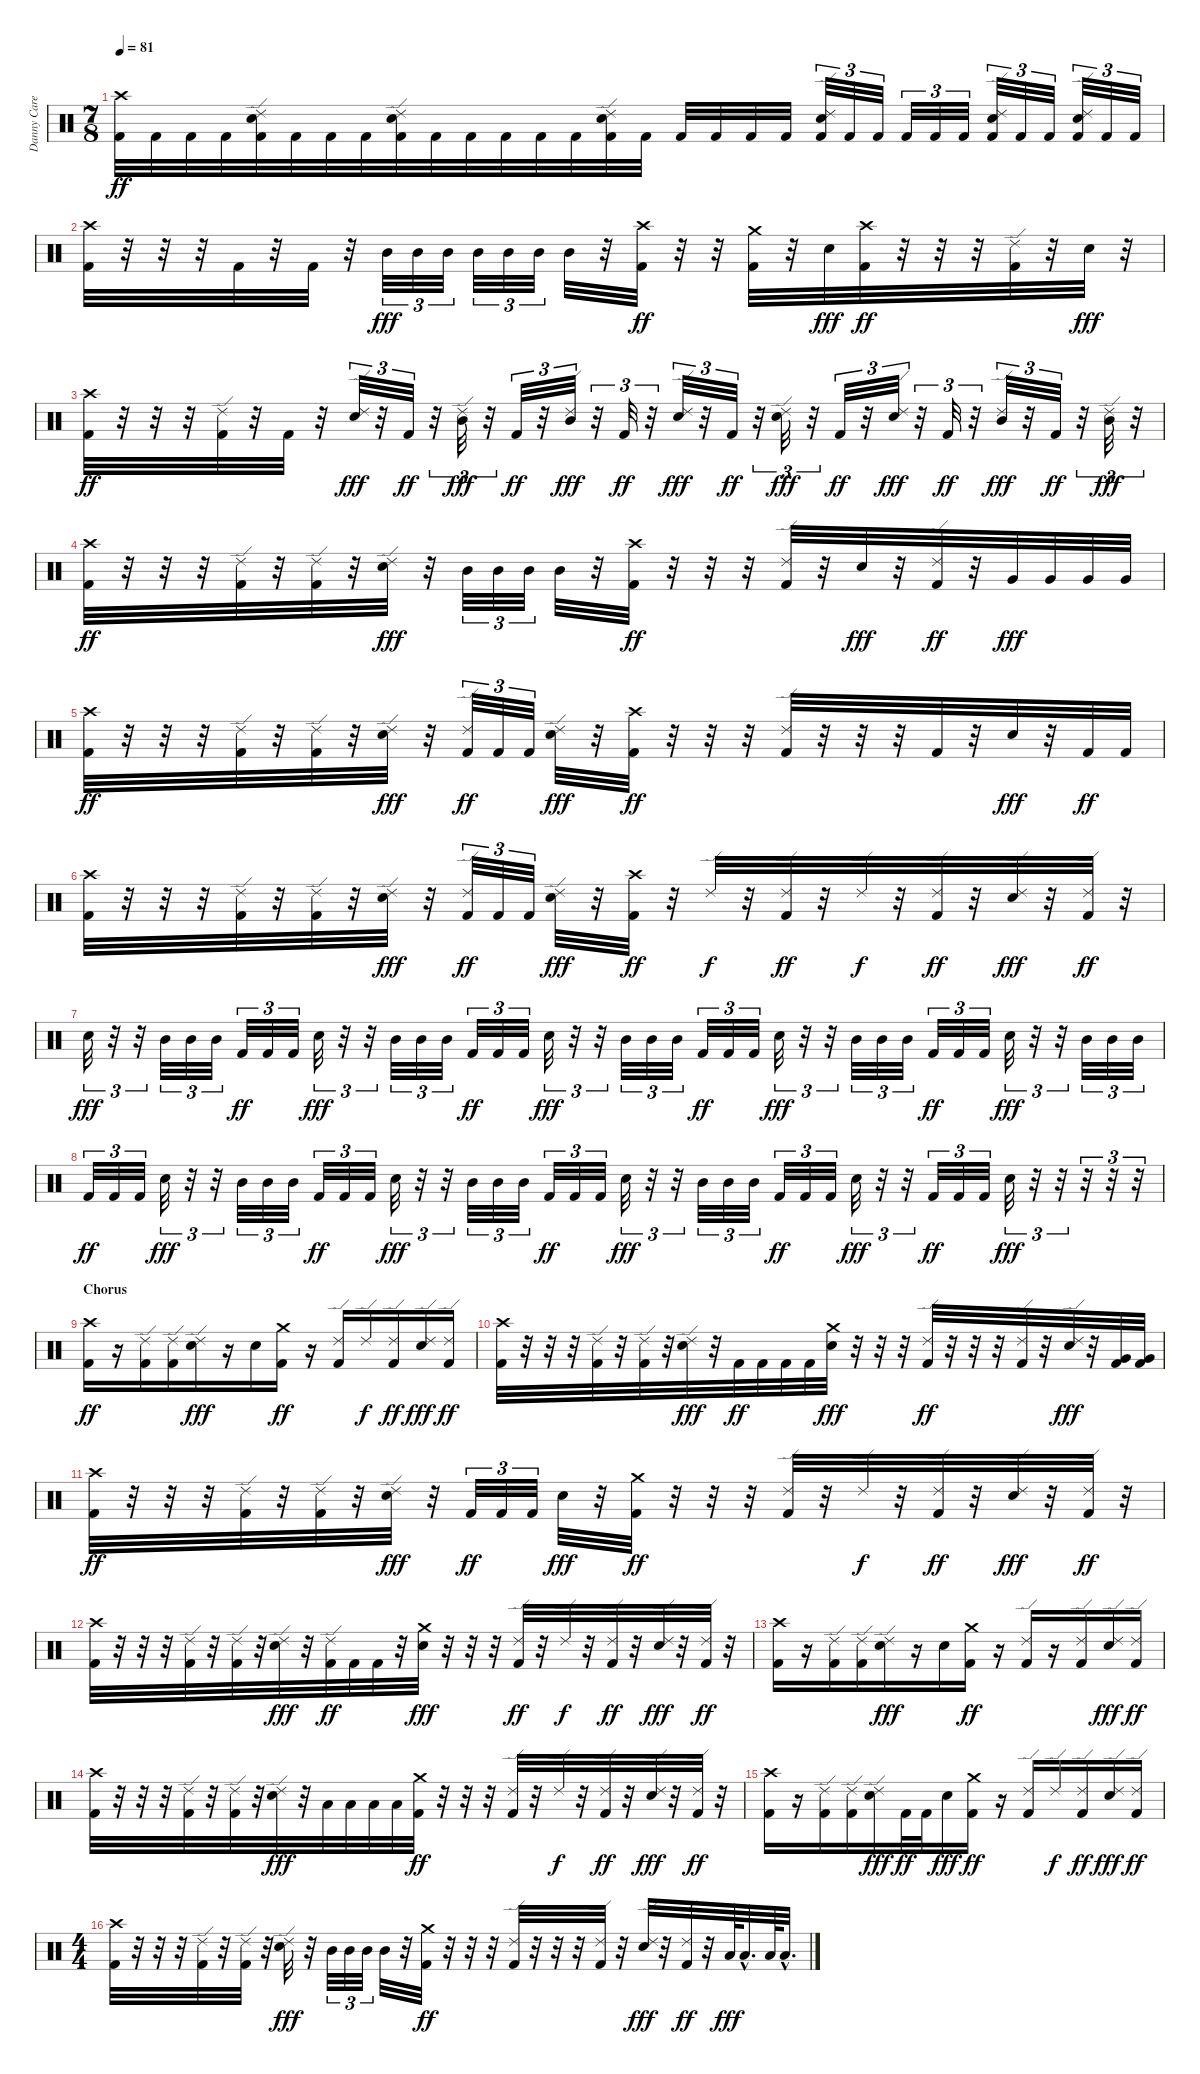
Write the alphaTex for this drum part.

\track ("Danny Carey" "Danny Care") {instrument percussion}
\staff {score}
\articulation defaults
\ts (7 8)
\tempo 81
\clef neutral
\ks c
("Crash high (hit)" "Kick (hit) 2").32{dy ff} "Kick (hit) 2".32 "Kick (hit) 2".32 "Kick (hit) 2".32 ("Ride (edge) 2" "Electric Snare (hit)" "Kick (hit) 2").32 "Kick (hit) 2".32 "Kick (hit) 2".32 "Kick (hit) 2".32 ("Ride (edge) 2" "Electric Snare (hit)" "Kick (hit) 2").32 "Kick (hit) 2".32 "Kick (hit) 2".32 "Kick (hit) 2".32 "Kick (hit) 2".32 "Kick (hit) 2".32 ("Ride (edge) 2" "Electric Snare (hit)" "Kick (hit) 2").32 "Kick (hit) 2".32 "Kick (hit) 2".32 "Kick (hit) 2".32 "Kick (hit) 2".32 "Kick (hit) 2".32 ("Ride (edge) 2" "Electric Snare (hit)" "Kick (hit) 2").32{tu (3 2)} "Kick (hit) 2".32{tu (3 2)} "Kick (hit) 2".32{tu (3 2)} "Kick (hit) 2".32{tu (3 2)} "Kick (hit) 2".32{tu (3 2)} "Kick (hit) 2".32{tu (3 2)} ("Ride (edge) 2" "Electric Snare (hit)" "Kick (hit) 2").32{tu (3 2)} "Kick (hit) 2".32{tu (3 2)} "Kick (hit) 2".32{tu (3 2)} ("Ride (edge) 2" "Electric Snare (hit)" "Kick (hit) 2").32{tu (3 2)} "Kick (hit) 2".32{tu (3 2)} "Kick (hit) 2".32{tu (3 2)} |
("Crash high (hit)" "Kick (hit) 2").32 r.32 r.32 r.32 "Kick (hit) 2".32 r.32 "Kick (hit) 2".32 r.32 "Mid Tom (hit)".32{tu (3 2) dy fff} "Mid Tom (hit)".32{tu (3 2)} "Mid Tom (hit)".32{tu (3 2)} "Mid Tom (hit)".32{tu (3 2)} "Mid Tom (hit)".32{tu (3 2)} "Mid Tom (hit)".32{tu (3 2)} "Mid Tom (hit)".32 r.32 ("Crash high (hit)" "Kick (hit) 2").32{dy ff} r.32 r.32 ("Crash medium (hit)" "Kick (hit) 2").32 r.32 "Electric Snare (hit)".32{dy fff} ("Crash high (hit)" "Kick (hit) 2").32{dy ff} r.32 r.32 r.32 ("Ride (edge) 2" "Kick (hit) 2").32 r.32 "Electric Snare (hit)".32{dy fff} r.32 |
("Crash high (hit)" "Kick (hit) 2").32{dy ff} r.32 r.32 r.32 ("Ride (edge) 2" "Kick (hit) 2").32 r.32 "Kick (hit) 2".32 r.32 ("Ride (edge) 2" "Electric Snare (hit)").32{tu (3 2) dy fff} r.32{tu (3 2)} "Kick (hit) 2".32{tu (3 2) dy ff} r.32{tu (3 2)} ("Ride (edge) 2" "Mid Tom (hit)").32{tu (3 2) dy fff} r.32{tu (3 2)} "Kick (hit) 2".32{tu (3 2) dy ff} r.32{tu (3 2)} ("Ride (edge) 2" "Mid Tom (hit)").32{tu (3 2) dy fff} r.32{tu (3 2)} "Kick (hit) 2".32{tu (3 2) dy ff} r.32{tu (3 2)} ("Ride (edge) 2" "Electric Snare (hit)").32{tu (3 2) dy fff} r.32{tu (3 2)} "Kick (hit) 2".32{tu (3 2) dy ff} r.32{tu (3 2)} ("Ride (edge) 2" "Electric Snare (hit)").32{tu (3 2) dy fff} r.32{tu (3 2)} "Kick (hit) 2".32{tu (3 2) dy ff} r.32{tu (3 2)} ("Ride (edge) 2" "Electric Snare (hit)").32{tu (3 2) dy fff} r.32{tu (3 2)} "Kick (hit) 2".32{tu (3 2) dy ff} r.32{tu (3 2)} ("Ride (edge) 2" "Mid Tom (hit)").32{tu (3 2) dy fff} r.32{tu (3 2)} "Kick (hit) 2".32{tu (3 2) dy ff} r.32{tu (3 2)} ("Ride (edge) 2" "Mid Tom (hit)").32{tu (3 2) dy fff} r.32{tu (3 2)} |
("Crash high (hit)" "Kick (hit) 2").32{dy ff} r.32 r.32 r.32 ("Ride (edge) 2" "Kick (hit) 2").32 r.32 ("Ride (edge) 2" "Kick (hit) 2").32 r.32 ("Ride (edge) 2" "Electric Snare (hit)").32{dy fff} r.32 "Mid Tom (hit)".32{tu (3 2)} "Mid Tom (hit)".32{tu (3 2)} "Mid Tom (hit)".32{tu (3 2)} "Mid Tom (hit)".32 r.32 ("Crash high (hit)" "Kick (hit) 2").32{dy ff} r.32 r.32 r.32 ("Ride (edge) 2" "Kick (hit) 2").32 r.32 "Electric Snare (hit)".32{dy fff} r.32 ("Ride (edge) 2" "Kick (hit) 2").32{dy ff} r.32 "Very Low Tom (hit)".32{dy fff} "Very Low Tom (hit)".32 "Very Low Tom (hit)".32 "Very Low Tom (hit)".32 |
("Crash high (hit)" "Kick (hit) 2").32{dy ff} r.32 r.32 r.32 ("Ride (edge) 2" "Kick (hit) 2").32 r.32 ("Ride (edge) 2" "Kick (hit) 2").32 r.32 ("Ride (edge) 2" "Electric Snare (hit)").32{dy fff} r.32 ("Ride (edge) 2" "Kick (hit) 2").32{tu (3 2) dy ff} "Kick (hit) 2".32{tu (3 2)} "Kick (hit) 2".32{tu (3 2)} ("Ride (edge) 2" "Electric Snare (hit)").32{dy fff} r.32 ("Crash high (hit)" "Kick (hit) 2").32{dy ff} r.32 r.32 r.32 ("Ride (edge) 2" "Kick (hit) 2").32 r.32 r.32 r.32 "Kick (hit) 2".32 r.32 "Electric Snare (hit)".32{dy fff} r.32 "Kick (hit) 2".32{dy ff} "Kick (hit) 2".32 |
("Crash high (hit)" "Kick (hit) 2").32 r.32 r.32 r.32 ("Ride (edge) 2" "Kick (hit) 2").32 r.32 ("Ride (edge) 2" "Kick (hit) 2").32 r.32 ("Ride (edge) 2" "Electric Snare (hit)").32{dy fff} r.32 ("Ride (edge) 2" "Kick (hit) 2").32{tu (3 2) dy ff} "Kick (hit) 2".32{tu (3 2)} "Kick (hit) 2".32{tu (3 2)} ("Ride (edge) 2" "Electric Snare (hit)").32{dy fff} r.32 ("Crash high (hit)" "Kick (hit) 2").32{dy ff} r.32 "Ride (edge) 2".32{dy f} r.32 ("Ride (edge) 2" "Kick (hit) 2").32{dy ff} r.32 "Ride (edge) 2".32{dy f} r.32 ("Ride (edge) 2" "Kick (hit) 2").32{dy ff} r.32 ("Ride (edge) 2" "Electric Snare (hit)").32{dy fff} r.32 ("Ride (edge) 2" "Kick (hit) 2").32{dy ff} r.32 |
"Electric Snare (hit)".32{tu (3 2) dy fff} r.32{tu (3 2)} r.32{tu (3 2)} "Mid Tom (hit)".32{tu (3 2)} "Mid Tom (hit)".32{tu (3 2)} "Mid Tom (hit)".32{tu (3 2)} "Kick (hit) 2".32{tu (3 2) dy ff} "Kick (hit) 2".32{tu (3 2)} "Kick (hit) 2".32{tu (3 2)} "Electric Snare (hit)".32{tu (3 2) dy fff} r.32{tu (3 2)} r.32{tu (3 2)} "Mid Tom (hit)".32{tu (3 2)} "Mid Tom (hit)".32{tu (3 2)} "Mid Tom (hit)".32{tu (3 2)} "Kick (hit) 2".32{tu (3 2) dy ff} "Kick (hit) 2".32{tu (3 2)} "Kick (hit) 2".32{tu (3 2)} "Electric Snare (hit)".32{tu (3 2) dy fff} r.32{tu (3 2)} r.32{tu (3 2)} "Mid Tom (hit)".32{tu (3 2)} "Mid Tom (hit)".32{tu (3 2)} "Mid Tom (hit)".32{tu (3 2)} "Kick (hit) 2".32{tu (3 2) dy ff} "Kick (hit) 2".32{tu (3 2)} "Kick (hit) 2".32{tu (3 2)} "Electric Snare (hit)".32{tu (3 2) dy fff} r.32{tu (3 2)} r.32{tu (3 2)} "Mid Tom (hit)".32{tu (3 2)} "Mid Tom (hit)".32{tu (3 2)} "Mid Tom (hit)".32{tu (3 2)} "Kick (hit) 2".32{tu (3 2) dy ff} "Kick (hit) 2".32{tu (3 2)} "Kick (hit) 2".32{tu (3 2)} "Electric Snare (hit)".32{tu (3 2) dy fff} r.32{tu (3 2)} r.32{tu (3 2)} "Mid Tom (hit)".32{tu (3 2)} "Mid Tom (hit)".32{tu (3 2)} "Mid Tom (hit)".32{tu (3 2)} |
"Kick (hit) 2".32{tu (3 2) dy ff} "Kick (hit) 2".32{tu (3 2)} "Kick (hit) 2".32{tu (3 2)} "Electric Snare (hit)".32{tu (3 2) dy fff} r.32{tu (3 2)} r.32{tu (3 2)} "Mid Tom (hit)".32{tu (3 2)} "Mid Tom (hit)".32{tu (3 2)} "Mid Tom (hit)".32{tu (3 2)} "Kick (hit) 2".32{tu (3 2) dy ff} "Kick (hit) 2".32{tu (3 2)} "Kick (hit) 2".32{tu (3 2)} "Electric Snare (hit)".32{tu (3 2) dy fff} r.32{tu (3 2)} r.32{tu (3 2)} "Mid Tom (hit)".32{tu (3 2)} "Mid Tom (hit)".32{tu (3 2)} "Mid Tom (hit)".32{tu (3 2)} "Kick (hit) 2".32{tu (3 2) dy ff} "Kick (hit) 2".32{tu (3 2)} "Kick (hit) 2".32{tu (3 2)} "Electric Snare (hit)".32{tu (3 2) dy fff} r.32{tu (3 2)} r.32{tu (3 2)} "Mid Tom (hit)".32{tu (3 2)} "Mid Tom (hit)".32{tu (3 2)} "Mid Tom (hit)".32{tu (3 2)} "Kick (hit) 2".32{tu (3 2) dy ff} "Kick (hit) 2".32{tu (3 2)} "Kick (hit) 2".32{tu (3 2)} "Electric Snare (hit)".32{tu (3 2) dy fff} r.32{tu (3 2)} r.32{tu (3 2)} "Kick (hit) 2".32{tu (3 2) dy ff} "Kick (hit) 2".32{tu (3 2)} "Kick (hit) 2".32{tu (3 2)} "Electric Snare (hit)".32{tu (3 2) dy fff} r.32{tu (3 2)} r.32{tu (3 2)} r.32{tu (3 2)} r.32{tu (3 2)} r.32{tu (3 2)} |
\section ("" "Chorus")
("Crash high (hit)" "Kick (hit) 2").16{dy ff} r.16 ("Ride (edge) 2" "Kick (hit) 2").16 ("Ride (edge) 2" "Kick (hit) 2").16 ("Ride (edge) 2" "Electric Snare (hit)").16{dy fff} r.16 "Electric Snare (hit)".16 ("Crash medium (hit)" "Kick (hit) 2").16{dy ff} r.16 ("Ride (edge) 2" "Kick (hit) 2").16 "Ride (edge) 2".16{dy f} ("Ride (edge) 2" "Kick (hit) 2").16{dy ff} ("Ride (edge) 2" "Electric Snare (hit)").16{dy fff} ("Ride (edge) 2" "Kick (hit) 2").16{dy ff} |
("Crash high (hit)" "Kick (hit) 2").32 r.32 r.32 r.32 ("Ride (edge) 2" "Kick (hit) 2").32 r.32 ("Ride (edge) 2" "Kick (hit) 2").32 r.32 ("Ride (edge) 2" "Electric Snare (hit)").32{dy fff} r.32 "Kick (hit) 2".32{dy ff} "Kick (hit) 2".32 "Kick (hit) 2".32 "Kick (hit) 2".32 ("Crash medium (hit)" "Electric Snare (hit)").32{dy fff} r.32 r.32 r.32 ("Ride (edge) 2" "Kick (hit) 2").32{dy ff} r.32 r.32 r.32 ("Ride (edge) 2" "Kick (hit) 2").32 r.32 ("Ride (edge) 2" "Electric Snare (hit)").32{dy fff} r.32 ("Very Low Tom (hit)" "Kick (hit) 2").32 ("Very Low Tom (hit)" "Kick (hit) 2").32 |
("Crash high (hit)" "Kick (hit) 2").32{dy ff} r.32 r.32 r.32 ("Ride (edge) 2" "Kick (hit) 2").32 r.32 ("Ride (edge) 2" "Kick (hit) 2").32 r.32 ("Ride (edge) 2" "Electric Snare (hit)").32{dy fff} r.32 "Kick (hit) 2".32{tu (3 2) dy ff} "Kick (hit) 2".32{tu (3 2)} "Kick (hit) 2".32{tu (3 2)} "Electric Snare (hit)".32{dy fff} r.32 ("Crash medium (hit)" "Kick (hit) 2").32{dy ff} r.32 r.32 r.32 ("Ride (edge) 2" "Kick (hit) 2").32 r.32 "Ride (edge) 2".32{dy f} r.32 ("Ride (edge) 2" "Kick (hit) 2").32{dy ff} r.32 ("Ride (edge) 2" "Electric Snare (hit)").32{dy fff} r.32 ("Ride (edge) 2" "Kick (hit) 2").32{dy ff} r.32 |
("Crash high (hit)" "Kick (hit) 2").32 r.32 r.32 r.32 ("Ride (edge) 2" "Kick (hit) 2").32 r.32 ("Ride (edge) 2" "Kick (hit) 2").32 r.32 ("Ride (edge) 2" "Electric Snare (hit)").32{dy fff} r.32 ("Ride (edge) 2" "Kick (hit) 2").32{dy ff} "Kick (hit) 2".32 "Kick (hit) 2".32 r.32 ("Crash medium (hit)" "Electric Snare (hit)").32{dy fff} r.32 r.32 r.32 ("Ride (edge) 2" "Kick (hit) 2").32{dy ff} r.32 "Ride (edge) 2".32{dy f} r.32 ("Ride (edge) 2" "Kick (hit) 2").32{dy ff} r.32 ("Ride (edge) 2" "Electric Snare (hit)").32{dy fff} r.32 ("Ride (edge) 2" "Kick (hit) 2").32{dy ff} r.32 |
("Crash high (hit)" "Kick (hit) 2").16 r.16 ("Ride (edge) 2" "Kick (hit) 2").16 ("Ride (edge) 2" "Kick (hit) 2").16 ("Ride (edge) 2" "Electric Snare (hit)").16{dy fff} r.16 "Electric Snare (hit)".16 ("Crash medium (hit)" "Kick (hit) 2").16{dy ff} r.16 ("Ride (edge) 2" "Kick (hit) 2").16 r.16 ("Ride (edge) 2" "Kick (hit) 2").16 ("Ride (edge) 2" "Electric Snare (hit)").16{dy fff} ("Ride (edge) 2" "Kick (hit) 2").16{dy ff} |
("Crash high (hit)" "Kick (hit) 2").32 r.32 r.32 r.32 ("Ride (edge) 2" "Kick (hit) 2").32 r.32 ("Ride (edge) 2" "Kick (hit) 2").32 r.32 ("Ride (edge) 2" "Electric Snare (hit)").32{dy fff} r.32 "Low Floor Tom (hit)".32 "Low Floor Tom (hit)".32 "Low Floor Tom (hit)".32 "Low Floor Tom (hit)".32 ("Crash medium (hit)" "Kick (hit) 2").32{dy ff} r.32 r.32 r.32 ("Ride (edge) 2" "Kick (hit) 2").32 r.32 "Ride (edge) 2".32{dy f} r.32 ("Ride (edge) 2" "Kick (hit) 2").32{dy ff} r.32 ("Ride (edge) 2" "Electric Snare (hit)").32{dy fff} r.32 ("Ride (edge) 2" "Kick (hit) 2").32{dy ff} r.32 |
("Crash high (hit)" "Kick (hit) 2").16 r.16 ("Ride (edge) 2" "Kick (hit) 2").16 ("Ride (edge) 2" "Kick (hit) 2").16 ("Ride (edge) 2" "Electric Snare (hit)").16{dy fff} "Kick (hit) 2".32{dy ff} "Kick (hit) 2".32 "Electric Snare (hit)".16{dy fff} ("Crash medium (hit)" "Kick (hit) 2").16{dy ff} r.16 ("Ride (edge) 2" "Kick (hit) 2").16 "Ride (edge) 2".16{dy f} ("Ride (edge) 2" "Kick (hit) 2").16{dy ff} ("Ride (edge) 2" "Electric Snare (hit)").16{dy fff} ("Ride (edge) 2" "Kick (hit) 2").16{dy ff} |
\ts (4 4)
("Crash high (hit)" "Kick (hit) 2").32 r.32 r.32 r.32 ("Ride (edge) 2" "Kick (hit) 2").32 r.32 ("Ride (edge) 2" "Kick (hit) 2").32 r.32 ("Ride (edge) 2" "Electric Snare (hit)").32{dy fff} r.32 "Mid Tom (hit)".32{tu (3 2)} "Mid Tom (hit)".32{tu (3 2)} "Mid Tom (hit)".32{tu (3 2)} "Mid Tom (hit)".32 r.32 ("Crash medium (hit)" "Kick (hit) 2").32{dy ff} r.32 r.32 r.32 ("Ride (edge) 2" "Kick (hit) 2").32 r.32 r.32 r.32 ("Ride (edge) 2" "Kick (hit) 2").32 r.32 ("Ride (edge) 2" "Electric Snare (hit)").32{dy fff} r.32 ("Ride (edge) 2" "Kick (hit) 2").32{dy ff} r.32 "Low Floor Tom (hit)".64{dy fff} "Low Floor Tom (hit)"{hac}.32{d} "Low Floor Tom (hit)".64 "Low Floor Tom (hit)"{hac}.32{d}
